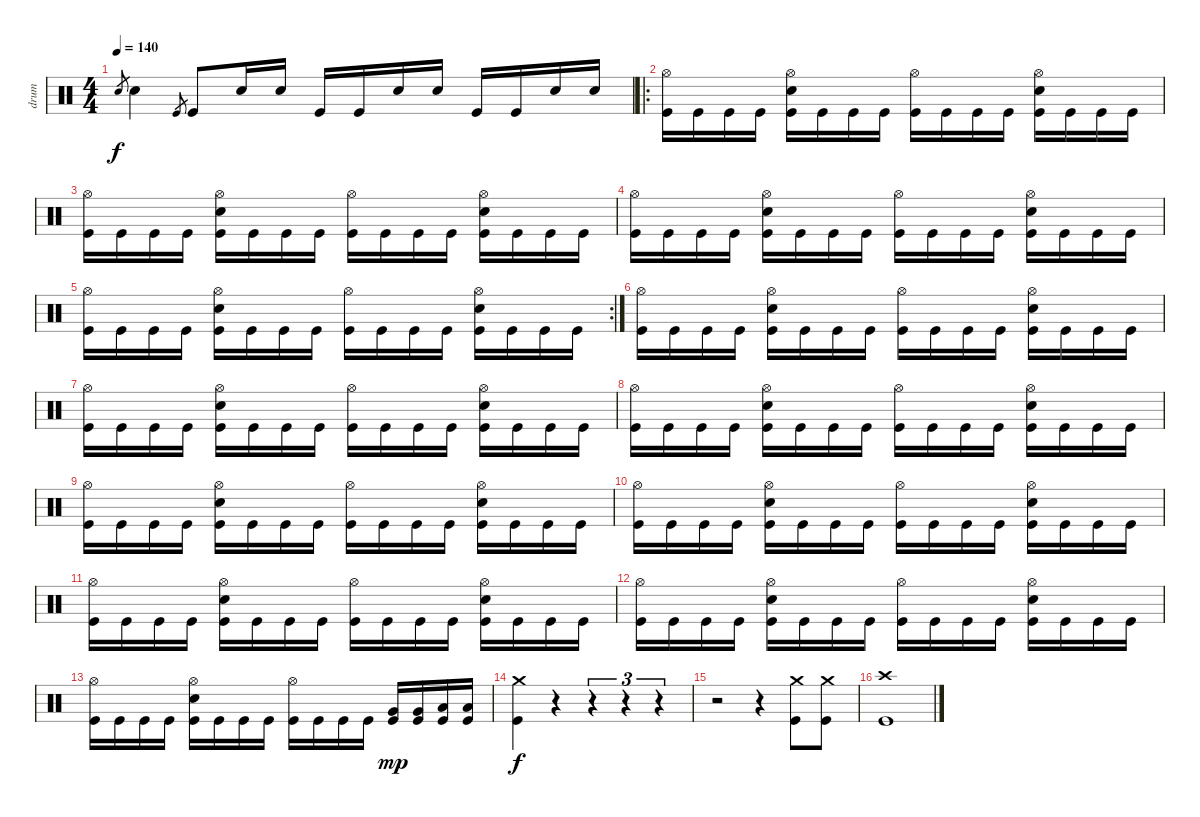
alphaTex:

\track ("drum" "drum") {instrument percussion}
\staff {score}
\articulation defaults
\ts (4 4)
\tempo 140
\clef neutral
\ks c "Snare (hit) 2".8{gr dy f} "Snare (hit) 2".4 "Kick (hit)".8{gr} "Kick (hit)".8 "Snare (hit) 2".16 "Snare (hit) 2".16 "Kick (hit)".16 "Kick (hit)".16 "Snare (hit) 2".16 "Snare (hit) 2".16 "Kick (hit)".16 "Kick (hit)".16 "Snare (hit) 2".16 "Snare (hit) 2".16
|
\ro
("Hi-Hat (open)" "Kick (hit)").16 "Kick (hit)".16 "Kick (hit)".16 "Kick (hit)".16 ("Hi-Hat (open)" "Snare (hit) 2" "Kick (hit)").16 "Kick (hit)".16 "Kick (hit)".16 "Kick (hit)".16 ("Hi-Hat (open)" "Kick (hit)").16 "Kick (hit)".16 "Kick (hit)".16 "Kick (hit)".16 ("Hi-Hat (open)" "Snare (hit) 2" "Kick (hit)").16 "Kick (hit)".16 "Kick (hit)".16 "Kick (hit)".16 |
("Hi-Hat (open)" "Kick (hit)").16 "Kick (hit)".16 "Kick (hit)".16 "Kick (hit)".16 ("Hi-Hat (open)" "Snare (hit) 2" "Kick (hit)").16 "Kick (hit)".16 "Kick (hit)".16 "Kick (hit)".16 ("Hi-Hat (open)" "Kick (hit)").16 "Kick (hit)".16 "Kick (hit)".16 "Kick (hit)".16 ("Hi-Hat (open)" "Snare (hit) 2" "Kick (hit)").16 "Kick (hit)".16 "Kick (hit)".16 "Kick (hit)".16 |
("Hi-Hat (open)" "Kick (hit)").16 "Kick (hit)".16 "Kick (hit)".16 "Kick (hit)".16 ("Hi-Hat (open)" "Snare (hit) 2" "Kick (hit)").16 "Kick (hit)".16 "Kick (hit)".16 "Kick (hit)".16 ("Hi-Hat (open)" "Kick (hit)").16 "Kick (hit)".16 "Kick (hit)".16 "Kick (hit)".16 ("Hi-Hat (open)" "Snare (hit) 2" "Kick (hit)").16 "Kick (hit)".16 "Kick (hit)".16 "Kick (hit)".16 |
\rc 2
("Hi-Hat (open)" "Kick (hit)").16 "Kick (hit)".16 "Kick (hit)".16 "Kick (hit)".16 ("Hi-Hat (open)" "Snare (hit) 2" "Kick (hit)").16 "Kick (hit)".16 "Kick (hit)".16 "Kick (hit)".16 ("Hi-Hat (open)" "Kick (hit)").16 "Kick (hit)".16 "Kick (hit)".16 "Kick (hit)".16 ("Hi-Hat (open)" "Snare (hit) 2" "Kick (hit)").16 "Kick (hit)".16 "Kick (hit)".16 "Kick (hit)".16 |
("Hi-Hat (open)" "Kick (hit)").16 "Kick (hit)".16 "Kick (hit)".16 "Kick (hit)".16 ("Hi-Hat (open)" "Snare (hit) 2" "Kick (hit)").16 "Kick (hit)".16 "Kick (hit)".16 "Kick (hit)".16 ("Hi-Hat (open)" "Kick (hit)").16 "Kick (hit)".16 "Kick (hit)".16 "Kick (hit)".16 ("Hi-Hat (open)" "Snare (hit) 2" "Kick (hit)").16 "Kick (hit)".16 "Kick (hit)".16 "Kick (hit)".16 |
("Hi-Hat (open)" "Kick (hit)").16 "Kick (hit)".16 "Kick (hit)".16 "Kick (hit)".16 ("Hi-Hat (open)" "Snare (hit) 2" "Kick (hit)").16 "Kick (hit)".16 "Kick (hit)".16 "Kick (hit)".16 ("Hi-Hat (open)" "Kick (hit)").16 "Kick (hit)".16 "Kick (hit)".16 "Kick (hit)".16 ("Hi-Hat (open)" "Snare (hit) 2" "Kick (hit)").16 "Kick (hit)".16 "Kick (hit)".16 "Kick (hit)".16 |
("Hi-Hat (open)" "Kick (hit)").16 "Kick (hit)".16 "Kick (hit)".16 "Kick (hit)".16 ("Hi-Hat (open)" "Snare (hit) 2" "Kick (hit)").16 "Kick (hit)".16 "Kick (hit)".16 "Kick (hit)".16 ("Hi-Hat (open)" "Kick (hit)").16 "Kick (hit)".16 "Kick (hit)".16 "Kick (hit)".16 ("Hi-Hat (open)" "Snare (hit) 2" "Kick (hit)").16 "Kick (hit)".16 "Kick (hit)".16 "Kick (hit)".16 |
("Hi-Hat (open)" "Kick (hit)").16 "Kick (hit)".16 "Kick (hit)".16 "Kick (hit)".16 ("Hi-Hat (open)" "Snare (hit) 2" "Kick (hit)").16 "Kick (hit)".16 "Kick (hit)".16 "Kick (hit)".16 ("Hi-Hat (open)" "Kick (hit)").16 "Kick (hit)".16 "Kick (hit)".16 "Kick (hit)".16 ("Hi-Hat (open)" "Snare (hit) 2" "Kick (hit)").16 "Kick (hit)".16 "Kick (hit)".16 "Kick (hit)".16 |
("Hi-Hat (open)" "Kick (hit)").16 "Kick (hit)".16 "Kick (hit)".16 "Kick (hit)".16 ("Hi-Hat (open)" "Snare (hit) 2" "Kick (hit)").16 "Kick (hit)".16 "Kick (hit)".16 "Kick (hit)".16 ("Hi-Hat (open)" "Kick (hit)").16 "Kick (hit)".16 "Kick (hit)".16 "Kick (hit)".16 ("Hi-Hat (open)" "Snare (hit) 2" "Kick (hit)").16 "Kick (hit)".16 "Kick (hit)".16 "Kick (hit)".16 |
("Hi-Hat (open)" "Kick (hit)").16 "Kick (hit)".16 "Kick (hit)".16 "Kick (hit)".16 ("Hi-Hat (open)" "Snare (hit) 2" "Kick (hit)").16 "Kick (hit)".16 "Kick (hit)".16 "Kick (hit)".16 ("Hi-Hat (open)" "Kick (hit)").16 "Kick (hit)".16 "Kick (hit)".16 "Kick (hit)".16 ("Hi-Hat (open)" "Snare (hit) 2" "Kick (hit)").16 "Kick (hit)".16 "Kick (hit)".16 "Kick (hit)".16 |
("Hi-Hat (open)" "Kick (hit)").16 "Kick (hit)".16 "Kick (hit)".16 "Kick (hit)".16 ("Hi-Hat (open)" "Snare (hit) 2" "Kick (hit)").16 "Kick (hit)".16 "Kick (hit)".16 "Kick (hit)".16 ("Hi-Hat (open)" "Kick (hit)").16 "Kick (hit)".16 "Kick (hit)".16 "Kick (hit)".16 ("Hi-Hat (open)" "Snare (hit) 2" "Kick (hit)").16 "Kick (hit)".16 "Kick (hit)".16 "Kick (hit)".16 |
("Hi-Hat (open)" "Kick (hit)").16 "Kick (hit)".16 "Kick (hit)".16 "Kick (hit)".16 ("Hi-Hat (open)" "Snare (hit) 2" "Kick (hit)").16 "Kick (hit)".16 "Kick (hit)".16 "Kick (hit)".16 ("Hi-Hat (open)" "Kick (hit)").16 "Kick (hit)".16 "Kick (hit)".16 "Kick (hit)".16 ("Very Low Tom (hit)" "Kick (hit)").16{dy mp} ("Very Low Tom (hit)" "Kick (hit)").16 ("Low Floor Tom (hit)" "Kick (hit)").16 ("Low Floor Tom (hit)" "Kick (hit)").16 |
("Crash medium (hit)" "Kick (hit)").4{dy f} r.4 r.4{tu (3 2)} r.4{tu (3 2)} r.4{tu (3 2)} |
r.2 r.4 ("Crash medium (hit)" "Kick (hit)").8 ("Crash medium (hit)" "Kick (hit)").8 |
("Crash high (hit)" "Kick (hit)").1
